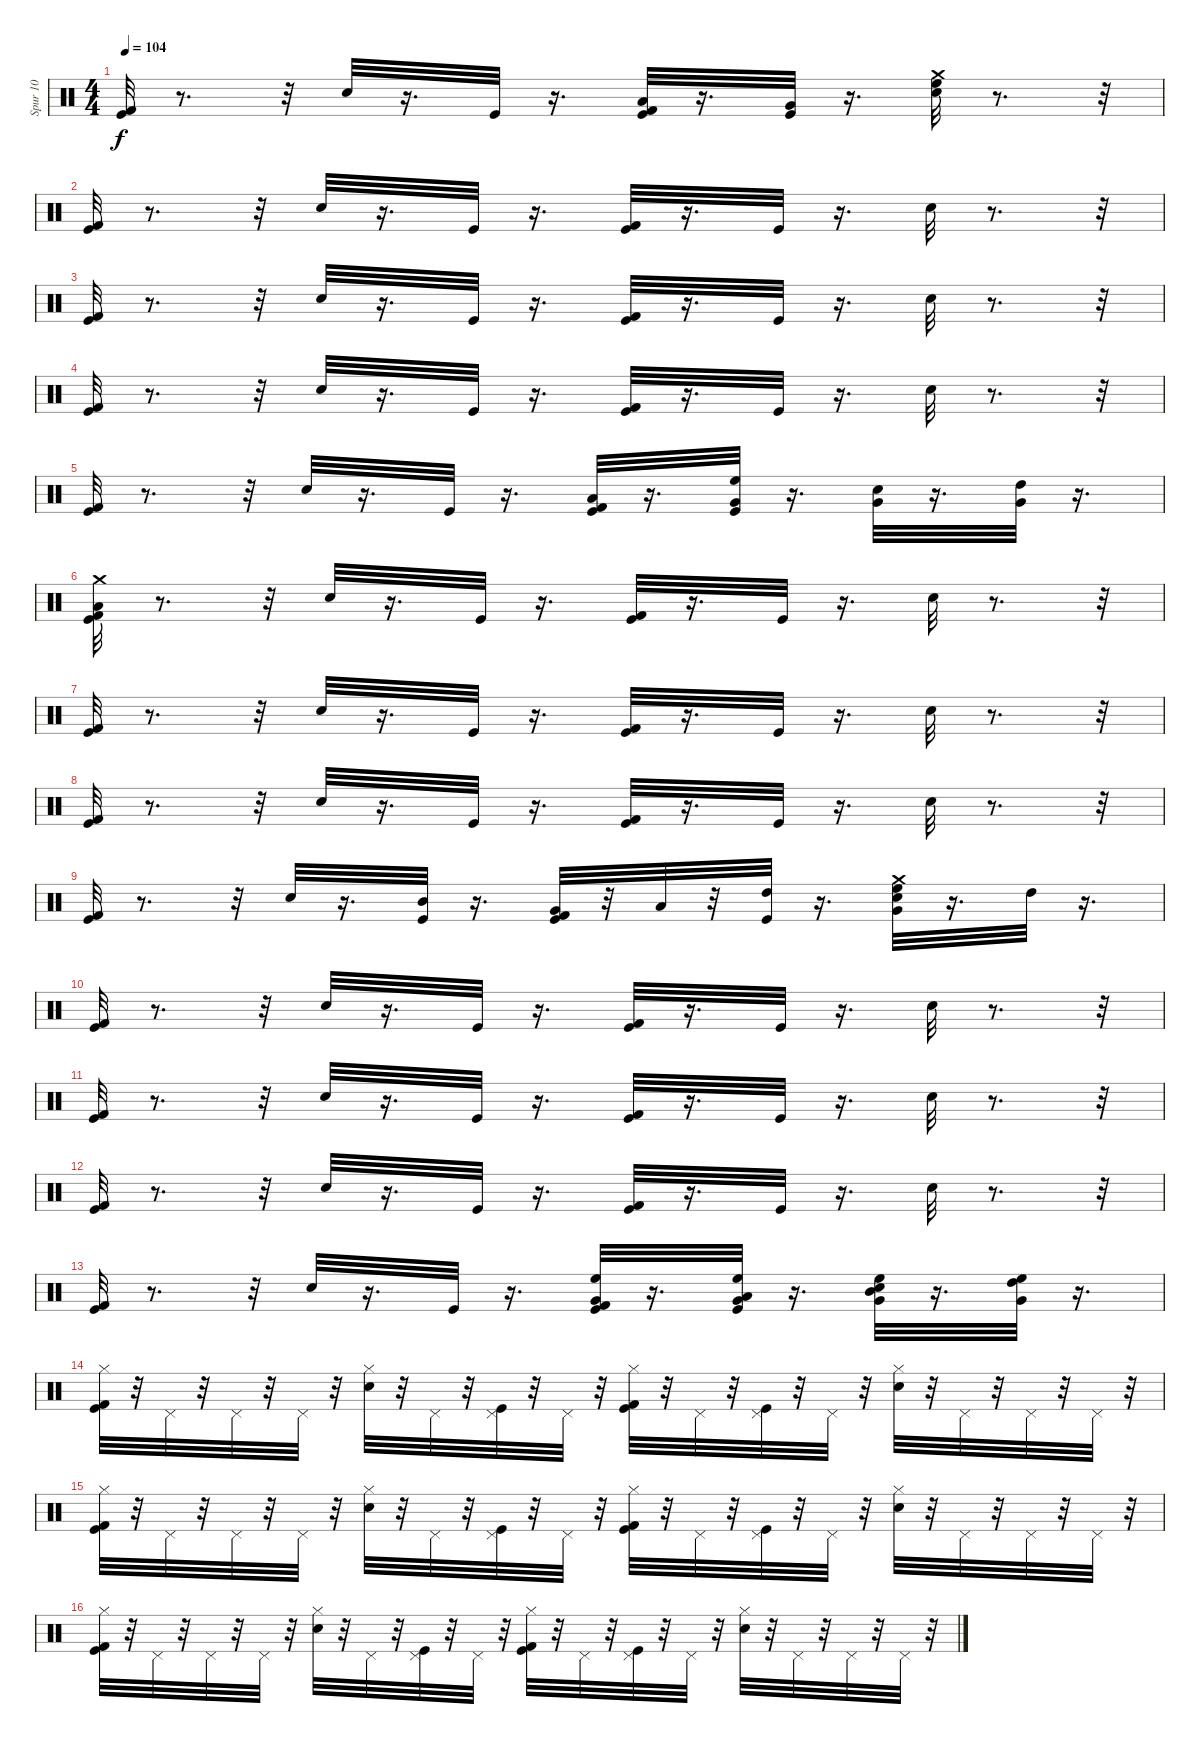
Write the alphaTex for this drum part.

\track ("Spur 10" "Spur 10") {instrument percussion}
\staff {score}
\articulation defaults
\ts (4 4)
\tempo 104
\clef neutral
\ks c
("Kick (hit) 2" "Kick (hit)").32{dy f} r.8{d} r.32 "Electric Snare (hit)".32 r.16{d} "Kick (hit)".32 r.16{d} ("Kick (hit) 2" "Kick (hit)" "Low Tom (hit)").32 r.16{d} ("Kick (hit)" "Very Low Tom (hit)").32 r.16{d} ("High Floor Tom (hit)" "Crash medium (hit)" "Electric Snare (hit)").32 r.8{d} r.32 |
("Kick (hit)" "Kick (hit) 2").32 r.8{d} r.32 "Electric Snare (hit)".32 r.16{d} "Kick (hit)".32 r.16{d} ("Kick (hit) 2" "Kick (hit)").32 r.16{d} "Kick (hit)".32 r.16{d} "Electric Snare (hit)".32 r.8{d} r.32 |
("Kick (hit) 2" "Kick (hit)").32 r.8{d} r.32 "Electric Snare (hit)".32 r.16{d} "Kick (hit)".32 r.16{d} ("Kick (hit) 2" "Kick (hit)").32 r.16{d} "Kick (hit)".32 r.16{d} "Electric Snare (hit)".32 r.8{d} r.32 |
("Kick (hit) 2" "Kick (hit)").32 r.8{d} r.32 "Electric Snare (hit)".32 r.16{d} "Kick (hit)".32 r.16{d} ("Kick (hit) 2" "Kick (hit)").32 r.16{d} "Kick (hit)".32 r.16{d} "Electric Snare (hit)".32 r.8{d} r.32 |
("Kick (hit) 2" "Kick (hit)").32 r.8{d} r.32 "Electric Snare (hit)".32 r.16{d} "Kick (hit)".32 r.16{d} ("Low Tom (hit)" "Kick (hit) 2" "Kick (hit)").32 r.16{d} ("Very Low Tom (hit)" "High Floor Tom (hit)" "Kick (hit)").32 r.16{d} ("Very Low Tom (hit)" "Electric Snare (hit)").32 r.16{d} ("Very Low Tom (hit)" "High Tom (hit)").32 r.16{d} |
("Kick (hit) 2" "Kick (hit)" "Crash medium (hit)" "Low Tom (hit)").32 r.8{d} r.32 "Electric Snare (hit)".32 r.16{d} "Kick (hit)".32 r.16{d} ("Kick (hit) 2" "Kick (hit)").32 r.16{d} "Kick (hit)".32 r.16{d} "Electric Snare (hit)".32 r.8{d} r.32 |
("Kick (hit) 2" "Kick (hit)").32 r.8{d} r.32 "Electric Snare (hit)".32 r.16{d} "Kick (hit)".32 r.16{d} ("Kick (hit) 2" "Kick (hit)").32 r.16{d} "Kick (hit)".32 r.16{d} "Electric Snare (hit)".32 r.8{d} r.32 |
("Kick (hit) 2" "Kick (hit)").32 r.8{d} r.32 "Electric Snare (hit)".32 r.16{d} "Kick (hit)".32 r.16{d} ("Kick (hit) 2" "Kick (hit)").32 r.16{d} "Kick (hit)".32 r.16{d} "Electric Snare (hit)".32 r.8{d} r.32 |
("Kick (hit) 2" "Kick (hit)").32 r.8{d} r.32 "Electric Snare (hit)".32 r.16{d} ("Mid Tom (hit)" "Kick (hit)").32 r.16{d} ("Very Low Tom (hit)" "Kick (hit) 2" "Kick (hit)").32 r.32 "Low Tom (hit)".32 r.32 ("Kick (hit)" "High Tom (hit)").32 r.16{d} ("Very Low Tom (hit)" "High Floor Tom (hit)" "Crash medium (hit)" "Electric Snare (hit)").32 r.16{d} "High Tom (hit)".32 r.16{d} |
("Kick (hit)" "Kick (hit) 2").32 r.8{d} r.32 "Electric Snare (hit)".32 r.16{d} "Kick (hit)".32 r.16{d} ("Kick (hit) 2" "Kick (hit)").32 r.16{d} "Kick (hit)".32 r.16{d} "Electric Snare (hit)".32 r.8{d} r.32 |
("Kick (hit) 2" "Kick (hit)").32 r.8{d} r.32 "Electric Snare (hit)".32 r.16{d} "Kick (hit)".32 r.16{d} ("Kick (hit) 2" "Kick (hit)").32 r.16{d} "Kick (hit)".32 r.16{d} "Electric Snare (hit)".32 r.8{d} r.32 |
("Kick (hit) 2" "Kick (hit)").32 r.8{d} r.32 "Electric Snare (hit)".32 r.16{d} "Kick (hit)".32 r.16{d} ("Kick (hit) 2" "Kick (hit)").32 r.16{d} "Kick (hit)".32 r.16{d} "Electric Snare (hit)".32 r.8{d} r.32 |
("Kick (hit) 2" "Kick (hit)").32 r.8{d} r.32 "Electric Snare (hit)".32 r.16{d} "Kick (hit)".32 r.16{d} ("High Floor Tom (hit)" "Very Low Tom (hit)" "Kick (hit) 2" "Kick (hit)").32 r.16{d} ("High Floor Tom (hit)" "Low Tom (hit)" "Very Low Tom (hit)" "Kick (hit)").32 r.16{d} ("High Floor Tom (hit)" "Mid Tom (hit)" "Very Low Tom (hit)" "Electric Snare (hit)").32 r.16{d} ("High Floor Tom (hit)" "High Tom (hit)" "Very Low Tom (hit)").32 r.16{d} |
("Kick (hit) 2" "Kick (hit)" "Hi-Hat (closed)").32 r.32 "Pedal Hi-Hat (hit)".32 r.32 "Pedal Hi-Hat (hit)".32 r.32 "Pedal Hi-Hat (hit)".32 r.32 ("Hi-Hat (closed)" "Electric Snare (hit)").32 r.32 "Pedal Hi-Hat (hit)".32 r.32 ("Pedal Hi-Hat (hit)" "Kick (hit)").32 r.32 "Pedal Hi-Hat (hit)".32 r.32 ("Kick (hit) 2" "Kick (hit)" "Hi-Hat (closed)").32 r.32 "Pedal Hi-Hat (hit)".32 r.32 ("Pedal Hi-Hat (hit)" "Kick (hit)").32 r.32 "Pedal Hi-Hat (hit)".32 r.32 ("Hi-Hat (closed)" "Electric Snare (hit)").32 r.32 "Pedal Hi-Hat (hit)".32 r.32 "Pedal Hi-Hat (hit)".32 r.32 "Pedal Hi-Hat (hit)".32 r.32 |
("Kick (hit) 2" "Kick (hit)" "Hi-Hat (closed)").32 r.32 "Pedal Hi-Hat (hit)".32 r.32 "Pedal Hi-Hat (hit)".32 r.32 "Pedal Hi-Hat (hit)".32 r.32 ("Electric Snare (hit)" "Hi-Hat (closed)").32 r.32 "Pedal Hi-Hat (hit)".32 r.32 ("Kick (hit)" "Pedal Hi-Hat (hit)").32 r.32 "Pedal Hi-Hat (hit)".32 r.32 ("Hi-Hat (closed)" "Kick (hit) 2" "Kick (hit)").32 r.32 "Pedal Hi-Hat (hit)".32 r.32 ("Kick (hit)" "Pedal Hi-Hat (hit)").32 r.32 "Pedal Hi-Hat (hit)".32 r.32 ("Hi-Hat (closed)" "Electric Snare (hit)").32 r.32 "Pedal Hi-Hat (hit)".32 r.32 "Pedal Hi-Hat (hit)".32 r.32 "Pedal Hi-Hat (hit)".32 r.32 |
("Hi-Hat (closed)" "Kick (hit) 2" "Kick (hit)").32 r.32 "Pedal Hi-Hat (hit)".32 r.32 "Pedal Hi-Hat (hit)".32 r.32 "Pedal Hi-Hat (hit)".32 r.32 ("Hi-Hat (closed)" "Electric Snare (hit)").32 r.32 "Pedal Hi-Hat (hit)".32 r.32 ("Pedal Hi-Hat (hit)" "Kick (hit)").32 r.32 "Pedal Hi-Hat (hit)".32 r.32 ("Kick (hit) 2" "Kick (hit)" "Hi-Hat (closed)").32 r.32 "Pedal Hi-Hat (hit)".32 r.32 ("Pedal Hi-Hat (hit)" "Kick (hit)").32 r.32 "Pedal Hi-Hat (hit)".32 r.32 ("Hi-Hat (closed)" "Electric Snare (hit)").32 r.32 "Pedal Hi-Hat (hit)".32 r.32 "Pedal Hi-Hat (hit)".32 r.32 "Pedal Hi-Hat (hit)".32 r.32
